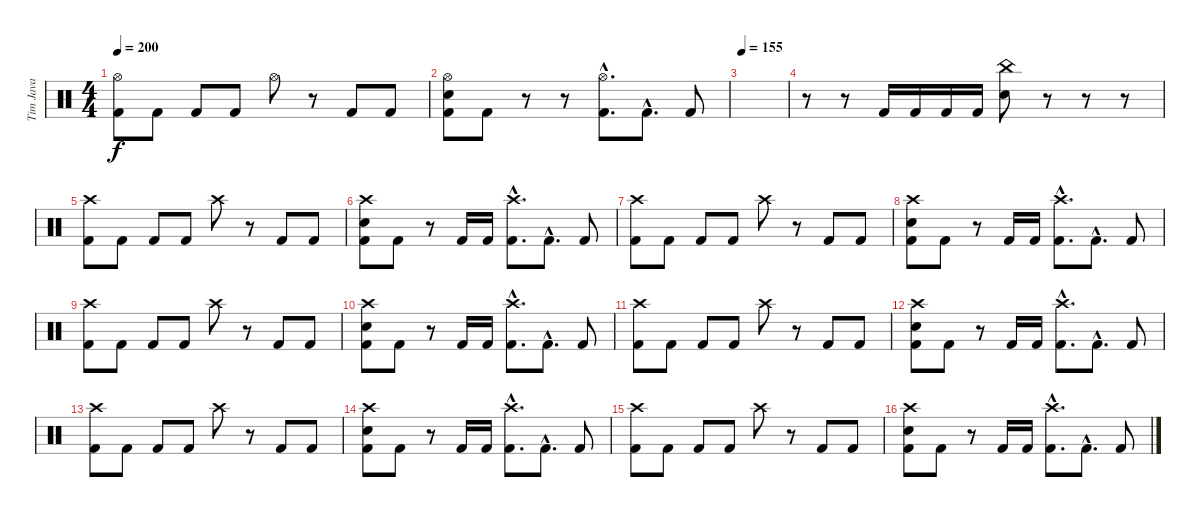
\track ("Tim Java" "Tim Java") {instrument percussion}
\staff {score}
\articulation defaults
\ts (4 4)
\tempo 200
\clef neutral
\ks c
("Hi-Hat (open)" "Kick (hit) 2").8{dy f} "Kick (hit) 2".8 "Kick (hit) 2".8 "Kick (hit) 2".8 "Hi-Hat (open)".8 r.8 "Kick (hit) 2".8 "Kick (hit) 2".8 |
("Hi-Hat (open)" "Electric Snare (hit)" "Kick (hit) 2").8 "Kick (hit) 2".8 r.8 r.8 ("Hi-Hat (open)"{hac} "Kick (hit) 2"{hac}).8{d} "Kick (hit) 2"{hac}.8{d} "Kick (hit) 2".8 |
\tempo 155
|
r.8 r.8 "Kick (hit) 2".16 "Kick (hit) 2".16 "Kick (hit) 2".16 "Kick (hit) 2".16 ("China (hit)" "Electric Snare (hit)").8 r.8 r.8 r.8 |
("Crash high (hit)" "Kick (hit) 2").8 "Kick (hit) 2".8 "Kick (hit) 2".8 "Kick (hit) 2".8 "Crash high (hit)".8 r.8 "Kick (hit) 2".8 "Kick (hit) 2".8 |
("Crash high (hit)" "Electric Snare (hit)" "Kick (hit) 2").8 "Kick (hit) 2".8 r.8 "Kick (hit) 2".16 "Kick (hit) 2".16 ("Crash high (hit)"{hac} "Kick (hit) 2"{hac}).8{d} "Kick (hit) 2"{hac}.8{d} "Kick (hit) 2".8 |
("Crash high (hit)" "Kick (hit) 2").8 "Kick (hit) 2".8 "Kick (hit) 2".8 "Kick (hit) 2".8 "Crash high (hit)".8 r.8 "Kick (hit) 2".8 "Kick (hit) 2".8 |
("Crash high (hit)" "Electric Snare (hit)" "Kick (hit) 2").8 "Kick (hit) 2".8 r.8 "Kick (hit) 2".16 "Kick (hit) 2".16 ("Crash high (hit)"{hac} "Kick (hit) 2"{hac}).8{d} "Kick (hit) 2"{hac}.8{d} "Kick (hit) 2".8 |
("Crash high (hit)" "Kick (hit) 2").8 "Kick (hit) 2".8 "Kick (hit) 2".8 "Kick (hit) 2".8 "Crash high (hit)".8 r.8 "Kick (hit) 2".8 "Kick (hit) 2".8 |
("Crash high (hit)" "Electric Snare (hit)" "Kick (hit) 2").8 "Kick (hit) 2".8 r.8 "Kick (hit) 2".16 "Kick (hit) 2".16 ("Crash high (hit)"{hac} "Kick (hit) 2"{hac}).8{d} "Kick (hit) 2"{hac}.8{d} "Kick (hit) 2".8 |
("Crash high (hit)" "Kick (hit) 2").8 "Kick (hit) 2".8 "Kick (hit) 2".8 "Kick (hit) 2".8 "Crash high (hit)".8 r.8 "Kick (hit) 2".8 "Kick (hit) 2".8 |
("Crash high (hit)" "Electric Snare (hit)" "Kick (hit) 2").8 "Kick (hit) 2".8 r.8 "Kick (hit) 2".16 "Kick (hit) 2".16 ("Crash high (hit)"{hac} "Kick (hit) 2"{hac}).8{d} "Kick (hit) 2"{hac}.8{d} "Kick (hit) 2".8 |
("Crash high (hit)" "Kick (hit) 2").8 "Kick (hit) 2".8 "Kick (hit) 2".8 "Kick (hit) 2".8 "Crash high (hit)".8 r.8 "Kick (hit) 2".8 "Kick (hit) 2".8 |
("Crash high (hit)" "Electric Snare (hit)" "Kick (hit) 2").8 "Kick (hit) 2".8 r.8 "Kick (hit) 2".16 "Kick (hit) 2".16 ("Crash high (hit)"{hac} "Kick (hit) 2"{hac}).8{d} "Kick (hit) 2"{hac}.8{d} "Kick (hit) 2".8 |
("Crash high (hit)" "Kick (hit) 2").8 "Kick (hit) 2".8 "Kick (hit) 2".8 "Kick (hit) 2".8 "Crash high (hit)".8 r.8 "Kick (hit) 2".8 "Kick (hit) 2".8 |
("Crash high (hit)" "Electric Snare (hit)" "Kick (hit) 2").8 "Kick (hit) 2".8 r.8 "Kick (hit) 2".16 "Kick (hit) 2".16 ("Crash high (hit)"{hac} "Kick (hit) 2"{hac}).8{d} "Kick (hit) 2"{hac}.8{d} "Kick (hit) 2".8
